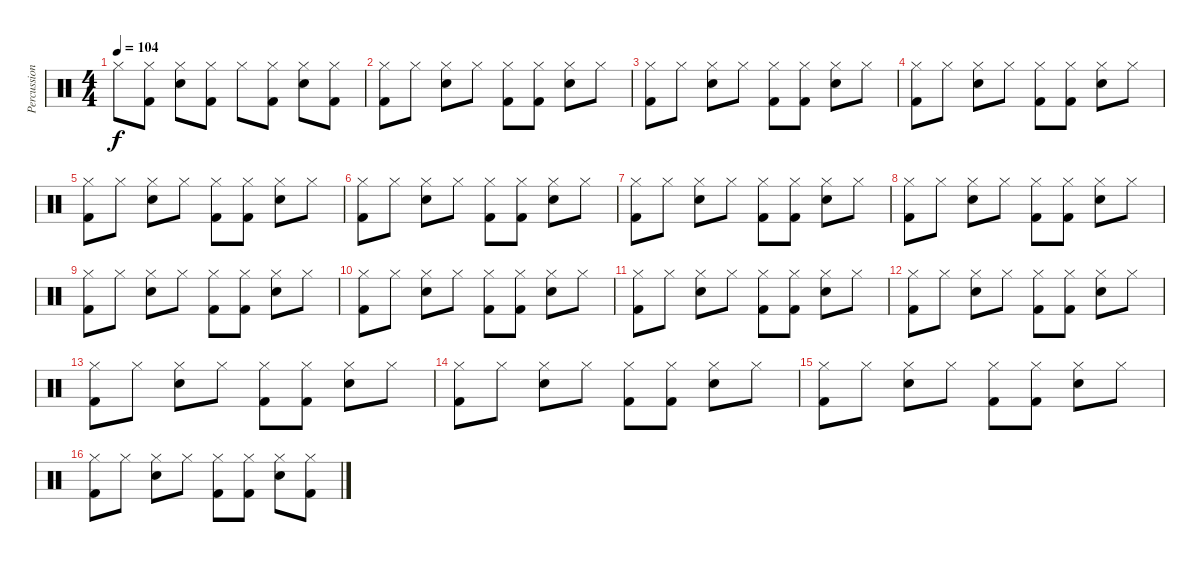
\track ("Percussions" "Percussion") {instrument percussion}
\staff {score}
\articulation defaults
\ts (4 4)
\tempo 104
\clef neutral
\ks c "Hi-Hat (closed)".8{dy f}
("Hi-Hat (closed)" "Kick (hit) 2").8 ("Hi-Hat (closed)" "Snare (hit) 2").8 ("Hi-Hat (closed)" "Kick (hit) 2").8 "Hi-Hat (closed)".8 ("Hi-Hat (closed)" "Kick (hit) 2").8 ("Hi-Hat (closed)" "Snare (hit) 2").8 ("Hi-Hat (closed)" "Kick (hit) 2").8 |
("Hi-Hat (closed)" "Kick (hit) 2").8 "Hi-Hat (closed)".8 ("Hi-Hat (closed)" "Snare (hit) 2").8 "Hi-Hat (closed)".8 ("Hi-Hat (closed)" "Kick (hit) 2").8 ("Hi-Hat (closed)" "Kick (hit) 2").8 ("Hi-Hat (closed)" "Snare (hit) 2").8 "Hi-Hat (closed)".8 |
("Hi-Hat (closed)" "Kick (hit) 2").8 "Hi-Hat (closed)".8 ("Hi-Hat (closed)" "Snare (hit) 2").8 "Hi-Hat (closed)".8 ("Hi-Hat (closed)" "Kick (hit) 2").8 ("Hi-Hat (closed)" "Kick (hit) 2").8 ("Hi-Hat (closed)" "Snare (hit) 2").8 "Hi-Hat (closed)".8 |
("Hi-Hat (closed)" "Kick (hit) 2").8 "Hi-Hat (closed)".8 ("Hi-Hat (closed)" "Snare (hit) 2").8 "Hi-Hat (closed)".8 ("Hi-Hat (closed)" "Kick (hit) 2").8 ("Hi-Hat (closed)" "Kick (hit) 2").8 ("Hi-Hat (closed)" "Snare (hit) 2").8 "Hi-Hat (closed)".8 |
("Hi-Hat (closed)" "Kick (hit) 2").8 "Hi-Hat (closed)".8 ("Hi-Hat (closed)" "Snare (hit) 2").8 "Hi-Hat (closed)".8 ("Hi-Hat (closed)" "Kick (hit) 2").8 ("Hi-Hat (closed)" "Kick (hit) 2").8 ("Hi-Hat (closed)" "Snare (hit) 2").8 "Hi-Hat (closed)".8 |
("Hi-Hat (closed)" "Kick (hit) 2").8 "Hi-Hat (closed)".8 ("Hi-Hat (closed)" "Snare (hit) 2").8 "Hi-Hat (closed)".8 ("Hi-Hat (closed)" "Kick (hit) 2").8 ("Hi-Hat (closed)" "Kick (hit) 2").8 ("Hi-Hat (closed)" "Snare (hit) 2").8 "Hi-Hat (closed)".8 |
("Hi-Hat (closed)" "Kick (hit) 2").8 "Hi-Hat (closed)".8 ("Hi-Hat (closed)" "Snare (hit) 2").8 "Hi-Hat (closed)".8 ("Hi-Hat (closed)" "Kick (hit) 2").8 ("Hi-Hat (closed)" "Kick (hit) 2").8 ("Hi-Hat (closed)" "Snare (hit) 2").8 "Hi-Hat (closed)".8 |
("Hi-Hat (closed)" "Kick (hit) 2").8 "Hi-Hat (closed)".8 ("Hi-Hat (closed)" "Snare (hit) 2").8 "Hi-Hat (closed)".8 ("Hi-Hat (closed)" "Kick (hit) 2").8 ("Hi-Hat (closed)" "Kick (hit) 2").8 ("Hi-Hat (closed)" "Snare (hit) 2").8 "Hi-Hat (closed)".8 |
("Hi-Hat (closed)" "Kick (hit) 2").8 "Hi-Hat (closed)".8 ("Hi-Hat (closed)" "Snare (hit) 2").8 "Hi-Hat (closed)".8 ("Hi-Hat (closed)" "Kick (hit) 2").8 ("Hi-Hat (closed)" "Kick (hit) 2").8 ("Hi-Hat (closed)" "Snare (hit) 2").8 "Hi-Hat (closed)".8 |
("Hi-Hat (closed)" "Kick (hit) 2").8 "Hi-Hat (closed)".8 ("Hi-Hat (closed)" "Snare (hit) 2").8 "Hi-Hat (closed)".8 ("Hi-Hat (closed)" "Kick (hit) 2").8 ("Hi-Hat (closed)" "Kick (hit) 2").8 ("Hi-Hat (closed)" "Snare (hit) 2").8 "Hi-Hat (closed)".8 |
("Hi-Hat (closed)" "Kick (hit) 2").8 "Hi-Hat (closed)".8 ("Hi-Hat (closed)" "Snare (hit) 2").8 "Hi-Hat (closed)".8 ("Hi-Hat (closed)" "Kick (hit) 2").8 ("Hi-Hat (closed)" "Kick (hit) 2").8 ("Hi-Hat (closed)" "Snare (hit) 2").8 "Hi-Hat (closed)".8 |
("Hi-Hat (closed)" "Kick (hit) 2").8 "Hi-Hat (closed)".8 ("Hi-Hat (closed)" "Snare (hit) 2").8 "Hi-Hat (closed)".8 ("Hi-Hat (closed)" "Kick (hit) 2").8 ("Hi-Hat (closed)" "Kick (hit) 2").8 ("Hi-Hat (closed)" "Snare (hit) 2").8 "Hi-Hat (closed)".8 |
("Hi-Hat (closed)" "Kick (hit) 2").8 "Hi-Hat (closed)".8 ("Hi-Hat (closed)" "Snare (hit) 2").8 "Hi-Hat (closed)".8 ("Hi-Hat (closed)" "Kick (hit) 2").8 ("Hi-Hat (closed)" "Kick (hit) 2").8 ("Hi-Hat (closed)" "Snare (hit) 2").8 "Hi-Hat (closed)".8 |
("Hi-Hat (closed)" "Kick (hit) 2").8 "Hi-Hat (closed)".8 ("Hi-Hat (closed)" "Snare (hit) 2").8 "Hi-Hat (closed)".8 ("Hi-Hat (closed)" "Kick (hit) 2").8 ("Hi-Hat (closed)" "Kick (hit) 2").8 ("Hi-Hat (closed)" "Snare (hit) 2").8 "Hi-Hat (closed)".8 |
("Hi-Hat (closed)" "Kick (hit) 2").8 "Hi-Hat (closed)".8 ("Hi-Hat (closed)" "Snare (hit) 2").8 "Hi-Hat (closed)".8 ("Hi-Hat (closed)" "Kick (hit) 2").8 ("Hi-Hat (closed)" "Kick (hit) 2").8 ("Hi-Hat (closed)" "Snare (hit) 2").8 "Hi-Hat (closed)".8 |
("Hi-Hat (closed)" "Kick (hit) 2").8 "Hi-Hat (closed)".8 ("Hi-Hat (closed)" "Snare (hit) 2").8 "Hi-Hat (closed)".8 ("Hi-Hat (closed)" "Kick (hit) 2").8 ("Hi-Hat (closed)" "Kick (hit) 2").8 ("Hi-Hat (closed)" "Snare (hit) 2").8 ("Hi-Hat (closed)" "Kick (hit) 2").8
